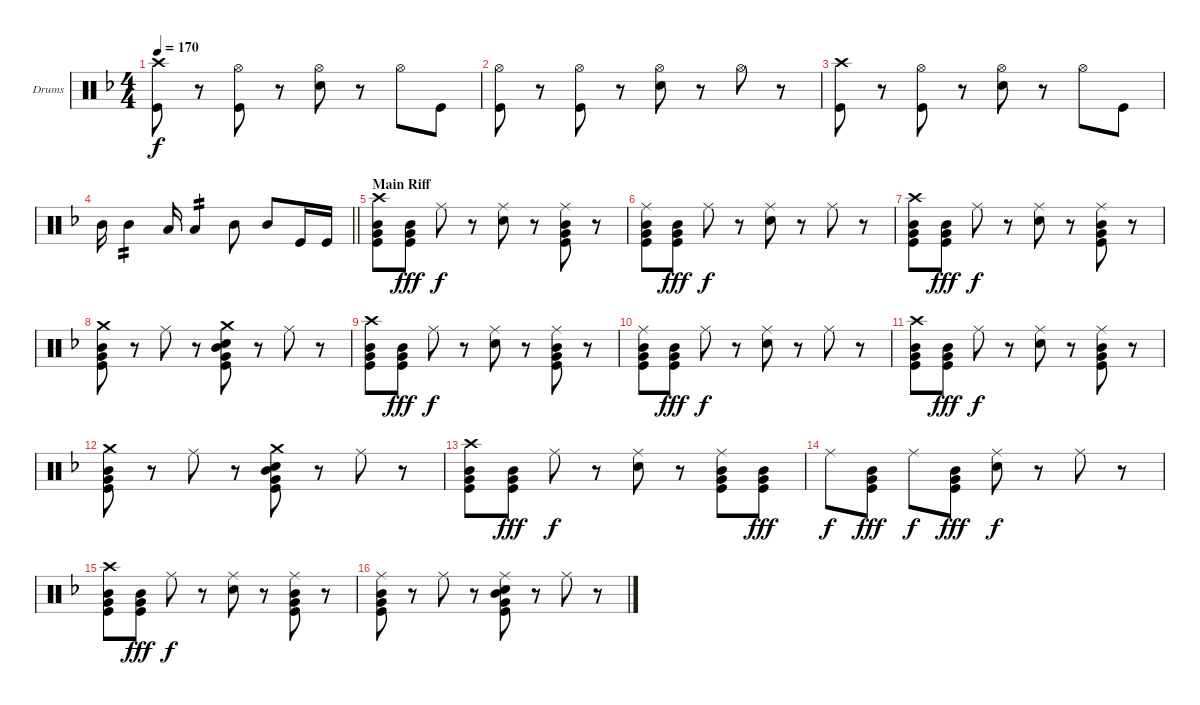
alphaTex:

\bracketExtendMode groupsimilarinstruments
\firstSystemTrackNameOrientation horizontal
\otherSystemsTrackNameOrientation horizontal
\track ("Drumkit" "Drums") {instrument percussion}
\staff {score}
\articulation defaults
\ts (4 4)
\tempo 170
\clef neutral
\scale
0.333333
\ks dminor
("Crash high (hit)" "Kick (hit)").8{dy f} r.8 ("Hi-Hat (open)" "Kick (hit)").8 r.8 ("Hi-Hat (open)" "Snare (hit) 2").8 r.8 "Hi-Hat (open)".8 "Kick (hit)".8 |
\scale
0.308285 ("Hi-Hat (open)" "Kick (hit)").8 r.8 ("Hi-Hat (open)" "Kick (hit)").8 r.8 ("Hi-Hat (open)" "Snare (hit) 2").8 r.8 "Hi-Hat (open)".8 r.8 |
\scale
0.308285 ("Crash high (hit)" "Kick (hit)").8 r.8 ("Hi-Hat (open)" "Kick (hit)").8 r.8 ("Hi-Hat (open)" "Snare (hit) 2").8 r.8 "Hi-Hat (open)".8 "Kick (hit)".8 |
\scale
0.38343
\barLineRight lightlight "Mid Tom (hit)".16 "Mid Tom (hit)".4{tp 2} "Low Tom (hit)".16 "Low Tom (hit)".4{tp 2} "Mid Tom (hit)".8 "Mid Tom (hit)".8 "Kick (hit)".16 "Kick (hit)".16
|
\section ("" "Main Riff")
\scale
0.333333 ("Crash high (hit)" "Mid Tom (hit)" "Very Low Tom (hit)" "Kick (hit)").8 ("Mid Tom (hit)" "Very Low Tom (hit)" "Kick (hit)").8{dy fff} "Ride (middle)".8{dy f} r.8 ("Ride (middle)" "Snare (hit) 2").8 r.8 ("Ride (middle)" "Mid Tom (hit)" "Very Low Tom (hit)" "Kick (hit)").8 r.8 |
\scale
0.333333 ("Ride (middle)" "Mid Tom (hit)" "Very Low Tom (hit)" "Kick (hit)").8 ("Mid Tom (hit)" "Very Low Tom (hit)" "Kick (hit)").8{dy fff} "Ride (middle)".8{dy f} r.8 ("Ride (middle)" "Snare (hit) 2").8 r.8 "Ride (middle)".8 r.8 |
\scale
0.333333 ("Crash high (hit)" "Mid Tom (hit)" "Very Low Tom (hit)" "Kick (hit)").8 ("Mid Tom (hit)" "Very Low Tom (hit)" "Kick (hit)").8{dy fff} "Ride (middle)".8{dy f} r.8 ("Ride (middle)" "Snare (hit) 2").8 r.8 ("Ride (middle)" "Mid Tom (hit)" "Very Low Tom (hit)" "Kick (hit)").8 r.8 |
\scale
0.351852 ("Crash medium (hit)" "Mid Tom (hit)" "Very Low Tom (hit)" "Kick (hit)").8 r.8 "Ride (middle)".8 r.8 ("Crash medium (hit)" "Snare (hit) 2" "Mid Tom (hit)" "Very Low Tom (hit)" "Kick (hit)").8 r.8 "Ride (middle)".8 r.8 |
\scale
0.324074 ("Crash high (hit)" "Mid Tom (hit)" "Very Low Tom (hit)" "Kick (hit)").8 ("Mid Tom (hit)" "Very Low Tom (hit)" "Kick (hit)").8{dy fff} "Ride (middle)".8{dy f} r.8 ("Ride (middle)" "Snare (hit) 2").8 r.8 ("Ride (middle)" "Mid Tom (hit)" "Very Low Tom (hit)" "Kick (hit)").8 r.8 |
\scale
0.324074 ("Ride (middle)" "Mid Tom (hit)" "Very Low Tom (hit)" "Kick (hit)").8 ("Mid Tom (hit)" "Very Low Tom (hit)" "Kick (hit)").8{dy fff} "Ride (middle)".8{dy f} r.8 ("Ride (middle)" "Snare (hit) 2").8 r.8 "Ride (middle)".8 r.8 |
\scale
0.324074 ("Crash high (hit)" "Mid Tom (hit)" "Very Low Tom (hit)" "Kick (hit)").8 ("Mid Tom (hit)" "Very Low Tom (hit)" "Kick (hit)").8{dy fff} "Ride (middle)".8{dy f} r.8 ("Ride (middle)" "Snare (hit) 2").8 r.8 ("Ride (middle)" "Mid Tom (hit)" "Very Low Tom (hit)" "Kick (hit)").8 r.8 |
\scale
0.351852 ("Crash medium (hit)" "Mid Tom (hit)" "Very Low Tom (hit)" "Kick (hit)").8 r.8 "Ride (middle)".8 r.8 ("Crash medium (hit)" "Snare (hit) 2" "Mid Tom (hit)" "Very Low Tom (hit)" "Kick (hit)").8 r.8 "Ride (middle)".8 r.8 |
\scale
0.324074 ("Crash high (hit)" "Mid Tom (hit)" "Very Low Tom (hit)" "Kick (hit)").8 ("Mid Tom (hit)" "Very Low Tom (hit)" "Kick (hit)").8{dy fff} "Ride (middle)".8{dy f} r.8 ("Ride (middle)" "Snare (hit) 2").8 r.8 ("Ride (middle)" "Mid Tom (hit)" "Very Low Tom (hit)" "Kick (hit)").8 ("Mid Tom (hit)" "Very Low Tom (hit)" "Kick (hit)").8{dy fff} |
\scale
0.324074 "Ride (middle)".8{dy f} ("Mid Tom (hit)" "Very Low Tom (hit)" "Kick (hit)").8{dy fff} "Ride (middle)".8{dy f} ("Mid Tom (hit)" "Kick (hit)" "Very Low Tom (hit)").8{dy fff} ("Ride (middle)" "Snare (hit) 2").8{dy f} r.8 "Ride (middle)".8 r.8 |
\scale
0.324074 ("Crash high (hit)" "Mid Tom (hit)" "Very Low Tom (hit)" "Kick (hit)").8 ("Mid Tom (hit)" "Very Low Tom (hit)" "Kick (hit)").8{dy fff} "Ride (middle)".8{dy f} r.8 ("Ride (middle)" "Snare (hit) 2").8 r.8 ("Ride (middle)" "Mid Tom (hit)" "Very Low Tom (hit)" "Kick (hit)").8 r.8 |
\scale
0.351852 ("Ride (middle)" "Mid Tom (hit)" "Very Low Tom (hit)" "Kick (hit)").8 r.8 "Ride (middle)".8 r.8 ("Ride (middle)" "Snare (hit) 2" "Mid Tom (hit)" "Very Low Tom (hit)" "Kick (hit)").8 r.8 "Ride (middle)".8 r.8
